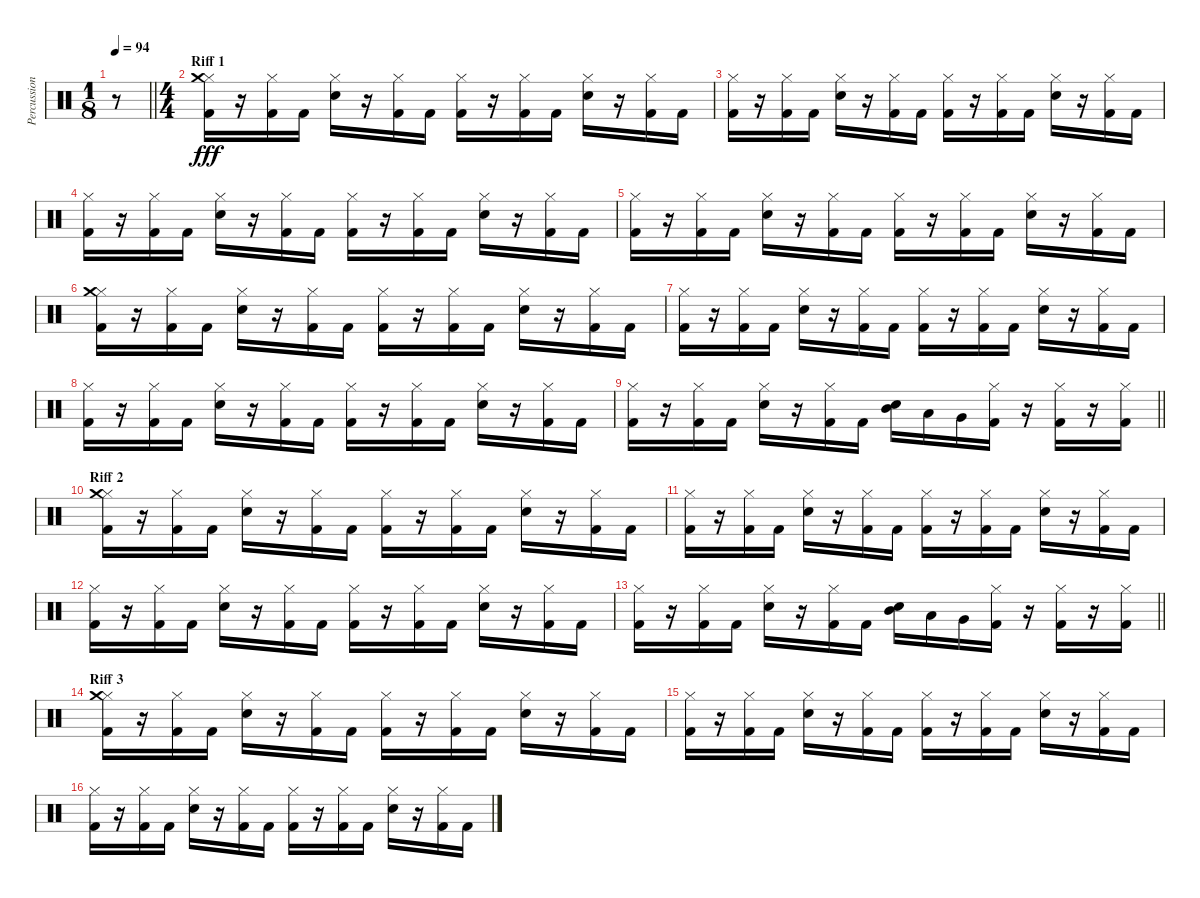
\track ("Percussions" "Percussion") {instrument percussion}
\staff {score}
\articulation defaults
\ts (1 8)
\tempo 94
\clef neutral
\barLineRight lightlight
\ks c
r.8{dy fff} |
\ts (4 4)
\section ("" "Riff 1")
("Kick (hit) 2" "Hi-Hat (closed)" "Crash medium (hit)").16 r.16 ("Kick (hit) 2" "Hi-Hat (closed)").16 "Kick (hit) 2".16 ("Electric Snare (hit)" "Hi-Hat (closed)").16 r.16 ("Kick (hit) 2" "Hi-Hat (closed)").16 "Kick (hit) 2".16 ("Kick (hit) 2" "Hi-Hat (closed)").16 r.16 ("Kick (hit) 2" "Hi-Hat (closed)").16 "Kick (hit) 2".16 ("Electric Snare (hit)" "Hi-Hat (closed)").16 r.16 ("Kick (hit) 2" "Hi-Hat (closed)").16 "Kick (hit) 2".16 |
("Kick (hit) 2" "Hi-Hat (closed)").16 r.16 ("Kick (hit) 2" "Hi-Hat (closed)").16 "Kick (hit) 2".16 ("Electric Snare (hit)" "Hi-Hat (closed)").16 r.16 ("Kick (hit) 2" "Hi-Hat (closed)").16 "Kick (hit) 2".16 ("Kick (hit) 2" "Hi-Hat (closed)").16 r.16 ("Kick (hit) 2" "Hi-Hat (closed)").16 "Kick (hit) 2".16 ("Electric Snare (hit)" "Hi-Hat (closed)").16 r.16 ("Kick (hit) 2" "Hi-Hat (closed)").16 "Kick (hit) 2".16 |
("Kick (hit) 2" "Hi-Hat (closed)").16 r.16 ("Kick (hit) 2" "Hi-Hat (closed)").16 "Kick (hit) 2".16 ("Electric Snare (hit)" "Hi-Hat (closed)").16 r.16 ("Kick (hit) 2" "Hi-Hat (closed)").16 "Kick (hit) 2".16 ("Kick (hit) 2" "Hi-Hat (closed)").16 r.16 ("Kick (hit) 2" "Hi-Hat (closed)").16 "Kick (hit) 2".16 ("Electric Snare (hit)" "Hi-Hat (closed)").16 r.16 ("Kick (hit) 2" "Hi-Hat (closed)").16 "Kick (hit) 2".16 |
("Kick (hit) 2" "Hi-Hat (closed)").16 r.16 ("Kick (hit) 2" "Hi-Hat (closed)").16 "Kick (hit) 2".16 ("Electric Snare (hit)" "Hi-Hat (closed)").16 r.16 ("Kick (hit) 2" "Hi-Hat (closed)").16 "Kick (hit) 2".16 ("Kick (hit) 2" "Hi-Hat (closed)").16 r.16 ("Kick (hit) 2" "Hi-Hat (closed)").16 "Kick (hit) 2".16 ("Electric Snare (hit)" "Hi-Hat (closed)").16 r.16 ("Kick (hit) 2" "Hi-Hat (closed)").16 "Kick (hit) 2".16 |
("Kick (hit) 2" "Hi-Hat (closed)" "Crash medium (hit)").16 r.16 ("Kick (hit) 2" "Hi-Hat (closed)").16 "Kick (hit) 2".16 ("Electric Snare (hit)" "Hi-Hat (closed)").16 r.16 ("Kick (hit) 2" "Hi-Hat (closed)").16 "Kick (hit) 2".16 ("Kick (hit) 2" "Hi-Hat (closed)").16 r.16 ("Kick (hit) 2" "Hi-Hat (closed)").16 "Kick (hit) 2".16 ("Electric Snare (hit)" "Hi-Hat (closed)").16 r.16 ("Kick (hit) 2" "Hi-Hat (closed)").16 "Kick (hit) 2".16 |
("Kick (hit) 2" "Hi-Hat (closed)").16 r.16 ("Kick (hit) 2" "Hi-Hat (closed)").16 "Kick (hit) 2".16 ("Electric Snare (hit)" "Hi-Hat (closed)").16 r.16 ("Kick (hit) 2" "Hi-Hat (closed)").16 "Kick (hit) 2".16 ("Kick (hit) 2" "Hi-Hat (closed)").16 r.16 ("Kick (hit) 2" "Hi-Hat (closed)").16 "Kick (hit) 2".16 ("Electric Snare (hit)" "Hi-Hat (closed)").16 r.16 ("Kick (hit) 2" "Hi-Hat (closed)").16 "Kick (hit) 2".16 |
("Kick (hit) 2" "Hi-Hat (closed)").16 r.16 ("Kick (hit) 2" "Hi-Hat (closed)").16 "Kick (hit) 2".16 ("Electric Snare (hit)" "Hi-Hat (closed)").16 r.16 ("Kick (hit) 2" "Hi-Hat (closed)").16 "Kick (hit) 2".16 ("Kick (hit) 2" "Hi-Hat (closed)").16 r.16 ("Kick (hit) 2" "Hi-Hat (closed)").16 "Kick (hit) 2".16 ("Electric Snare (hit)" "Hi-Hat (closed)").16 r.16 ("Kick (hit) 2" "Hi-Hat (closed)").16 "Kick (hit) 2".16 |
\barLineRight lightlight
("Kick (hit) 2" "Hi-Hat (closed)").16 r.16 ("Kick (hit) 2" "Hi-Hat (closed)").16 "Kick (hit) 2".16 ("Electric Snare (hit)" "Hi-Hat (closed)").16 r.16 ("Kick (hit) 2" "Hi-Hat (closed)").16 "Kick (hit) 2".16 ("Electric Snare (hit)" "Mid Tom (hit)").16 "Low Tom (hit)".16 "Very Low Tom (hit)".16 ("Kick (hit) 2" "Hi-Hat (closed)").16 r.16 ("Kick (hit) 2" "Hi-Hat (closed)").16 r.16 ("Kick (hit) 2" "Hi-Hat (closed)").16 |
\section ("" "Riff 2")
("Kick (hit) 2" "Hi-Hat (closed)" "Crash medium (hit)").16 r.16 ("Kick (hit) 2" "Hi-Hat (closed)").16 "Kick (hit) 2".16 ("Electric Snare (hit)" "Hi-Hat (closed)").16 r.16 ("Kick (hit) 2" "Hi-Hat (closed)").16 "Kick (hit) 2".16 ("Kick (hit) 2" "Hi-Hat (closed)").16 r.16 ("Kick (hit) 2" "Hi-Hat (closed)").16 "Kick (hit) 2".16 ("Electric Snare (hit)" "Hi-Hat (closed)").16 r.16 ("Kick (hit) 2" "Hi-Hat (closed)").16 "Kick (hit) 2".16 |
("Kick (hit) 2" "Hi-Hat (closed)").16 r.16 ("Kick (hit) 2" "Hi-Hat (closed)").16 "Kick (hit) 2".16 ("Electric Snare (hit)" "Hi-Hat (closed)").16 r.16 ("Kick (hit) 2" "Hi-Hat (closed)").16 "Kick (hit) 2".16 ("Kick (hit) 2" "Hi-Hat (closed)").16 r.16 ("Kick (hit) 2" "Hi-Hat (closed)").16 "Kick (hit) 2".16 ("Electric Snare (hit)" "Hi-Hat (closed)").16 r.16 ("Kick (hit) 2" "Hi-Hat (closed)").16 "Kick (hit) 2".16 |
("Kick (hit) 2" "Hi-Hat (closed)").16 r.16 ("Kick (hit) 2" "Hi-Hat (closed)").16 "Kick (hit) 2".16 ("Electric Snare (hit)" "Hi-Hat (closed)").16 r.16 ("Kick (hit) 2" "Hi-Hat (closed)").16 "Kick (hit) 2".16 ("Kick (hit) 2" "Hi-Hat (closed)").16 r.16 ("Kick (hit) 2" "Hi-Hat (closed)").16 "Kick (hit) 2".16 ("Electric Snare (hit)" "Hi-Hat (closed)").16 r.16 ("Kick (hit) 2" "Hi-Hat (closed)").16 "Kick (hit) 2".16 |
\barLineRight lightlight
("Kick (hit) 2" "Hi-Hat (closed)").16 r.16 ("Kick (hit) 2" "Hi-Hat (closed)").16 "Kick (hit) 2".16 ("Electric Snare (hit)" "Hi-Hat (closed)").16 r.16 ("Kick (hit) 2" "Hi-Hat (closed)").16 "Kick (hit) 2".16 ("Electric Snare (hit)" "Mid Tom (hit)").16 "Low Tom (hit)".16 "Very Low Tom (hit)".16 ("Kick (hit) 2" "Hi-Hat (closed)").16 r.16 ("Kick (hit) 2" "Hi-Hat (closed)").16 r.16 ("Kick (hit) 2" "Hi-Hat (closed)").16 |
\section ("" "Riff 3")
("Kick (hit) 2" "Hi-Hat (closed)" "Crash medium (hit)").16 r.16 ("Kick (hit) 2" "Hi-Hat (closed)").16 "Kick (hit) 2".16 ("Electric Snare (hit)" "Hi-Hat (closed)").16 r.16 ("Kick (hit) 2" "Hi-Hat (closed)").16 "Kick (hit) 2".16 ("Kick (hit) 2" "Hi-Hat (closed)").16 r.16 ("Kick (hit) 2" "Hi-Hat (closed)").16 "Kick (hit) 2".16 ("Electric Snare (hit)" "Hi-Hat (closed)").16 r.16 ("Kick (hit) 2" "Hi-Hat (closed)").16 "Kick (hit) 2".16 |
("Kick (hit) 2" "Hi-Hat (closed)").16 r.16 ("Kick (hit) 2" "Hi-Hat (closed)").16 "Kick (hit) 2".16 ("Electric Snare (hit)" "Hi-Hat (closed)").16 r.16 ("Kick (hit) 2" "Hi-Hat (closed)").16 "Kick (hit) 2".16 ("Kick (hit) 2" "Hi-Hat (closed)").16 r.16 ("Kick (hit) 2" "Hi-Hat (closed)").16 "Kick (hit) 2".16 ("Electric Snare (hit)" "Hi-Hat (closed)").16 r.16 ("Kick (hit) 2" "Hi-Hat (closed)").16 "Kick (hit) 2".16 |
("Kick (hit) 2" "Hi-Hat (closed)").16 r.16 ("Kick (hit) 2" "Hi-Hat (closed)").16 "Kick (hit) 2".16 ("Electric Snare (hit)" "Hi-Hat (closed)").16 r.16 ("Kick (hit) 2" "Hi-Hat (closed)").16 "Kick (hit) 2".16 ("Kick (hit) 2" "Hi-Hat (closed)").16 r.16 ("Kick (hit) 2" "Hi-Hat (closed)").16 "Kick (hit) 2".16 ("Electric Snare (hit)" "Hi-Hat (closed)").16 r.16 ("Kick (hit) 2" "Hi-Hat (closed)").16 "Kick (hit) 2".16
